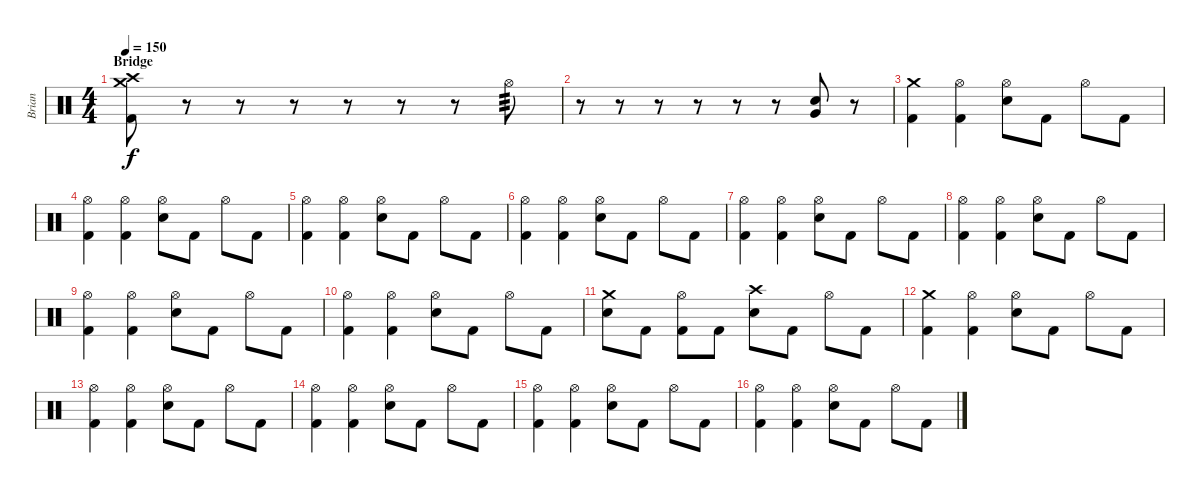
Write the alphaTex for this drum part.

\track ("Brian" "Brian") {instrument percussion}
\staff {score}
\articulation defaults
\ts (4 4)
\section ("" "Bridge")
\tempo 150
\clef neutral
\ks c
("Crash high (hit)" "Crash medium (hit)" "Kick (hit) 2").8{dy f} r.8 r.8 r.8 r.8 r.8 r.8 "Hi-Hat (open)".8{tp 3} |
r.8 r.8 r.8 r.8 r.8 r.8 ("Snare (hit) 2" "Very Low Tom (hit)").8 r.8 |
("Crash medium (hit)" "Kick (hit) 2").4 ("Hi-Hat (open)" "Kick (hit) 2").4 ("Hi-Hat (open)" "Snare (hit) 2").8 "Kick (hit) 2".8 "Hi-Hat (open)".8 "Kick (hit) 2".8 |
("Hi-Hat (open)" "Kick (hit) 2").4 ("Hi-Hat (open)" "Kick (hit) 2").4 ("Hi-Hat (open)" "Snare (hit) 2").8 "Kick (hit) 2".8 "Hi-Hat (open)".8 "Kick (hit) 2".8 |
("Hi-Hat (open)" "Kick (hit) 2").4 ("Hi-Hat (open)" "Kick (hit) 2").4 ("Hi-Hat (open)" "Snare (hit) 2").8 "Kick (hit) 2".8 "Hi-Hat (open)".8 "Kick (hit) 2".8 |
("Hi-Hat (open)" "Kick (hit) 2").4 ("Hi-Hat (open)" "Kick (hit) 2").4 ("Hi-Hat (open)" "Snare (hit) 2").8 "Kick (hit) 2".8 "Hi-Hat (open)".8 "Kick (hit) 2".8 |
("Hi-Hat (open)" "Kick (hit) 2").4 ("Hi-Hat (open)" "Kick (hit) 2").4 ("Hi-Hat (open)" "Snare (hit) 2").8 "Kick (hit) 2".8 "Hi-Hat (open)".8 "Kick (hit) 2".8 |
("Hi-Hat (open)" "Kick (hit) 2").4 ("Hi-Hat (open)" "Kick (hit) 2").4 ("Hi-Hat (open)" "Snare (hit) 2").8 "Kick (hit) 2".8 "Hi-Hat (open)".8 "Kick (hit) 2".8 |
("Hi-Hat (open)" "Kick (hit) 2").4 ("Hi-Hat (open)" "Kick (hit) 2").4 ("Hi-Hat (open)" "Snare (hit) 2").8 "Kick (hit) 2".8 "Hi-Hat (open)".8 "Kick (hit) 2".8 |
("Hi-Hat (open)" "Kick (hit) 2").4 ("Hi-Hat (open)" "Kick (hit) 2").4 ("Hi-Hat (open)" "Snare (hit) 2").8 "Kick (hit) 2".8 "Hi-Hat (open)".8 "Kick (hit) 2".8 |
("Crash medium (hit)" "Snare (hit) 2").8 "Kick (hit) 2".8 ("Hi-Hat (open)" "Kick (hit) 2").8 "Kick (hit) 2".8 ("Crash high (hit)" "Snare (hit) 2").8 "Kick (hit) 2".8 "Hi-Hat (open)".8 "Kick (hit) 2".8 |
("Crash medium (hit)" "Kick (hit) 2").4 ("Hi-Hat (open)" "Kick (hit) 2").4 ("Hi-Hat (open)" "Snare (hit) 2").8 "Kick (hit) 2".8 "Hi-Hat (open)".8 "Kick (hit) 2".8 |
("Hi-Hat (open)" "Kick (hit) 2").4 ("Hi-Hat (open)" "Kick (hit) 2").4 ("Hi-Hat (open)" "Snare (hit) 2").8 "Kick (hit) 2".8 "Hi-Hat (open)".8 "Kick (hit) 2".8 |
("Hi-Hat (open)" "Kick (hit) 2").4 ("Hi-Hat (open)" "Kick (hit) 2").4 ("Hi-Hat (open)" "Snare (hit) 2").8 "Kick (hit) 2".8 "Hi-Hat (open)".8 "Kick (hit) 2".8 |
("Hi-Hat (open)" "Kick (hit) 2").4 ("Hi-Hat (open)" "Kick (hit) 2").4 ("Hi-Hat (open)" "Snare (hit) 2").8 "Kick (hit) 2".8 "Hi-Hat (open)".8 "Kick (hit) 2".8 |
("Hi-Hat (open)" "Kick (hit) 2").4 ("Hi-Hat (open)" "Kick (hit) 2").4 ("Hi-Hat (open)" "Snare (hit) 2").8 "Kick (hit) 2".8 "Hi-Hat (open)".8 "Kick (hit) 2".8
